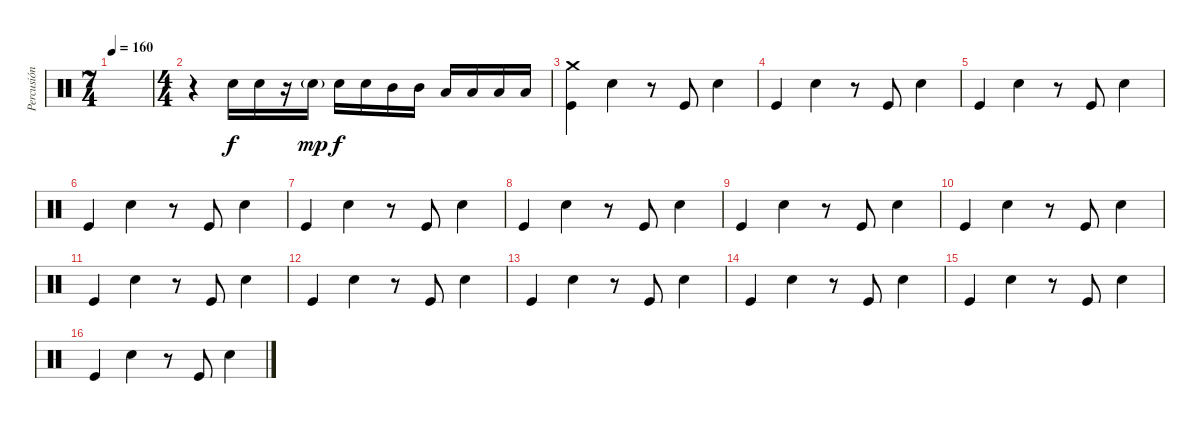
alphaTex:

\track ("Percusión" "Percusión") {instrument percussion}
\staff {score}
\articulation defaults
\ts (7 4)
\tempo 160
\clef neutral
\ks c
|
\ts (4 4)
r.4 "Snare (hit) 2".16 "Snare (hit) 2".16 r.16 "Snare (hit) 2"{g}.16{dy mp} "Snare (hit) 2".16{dy f} "Snare (hit) 2".16 "Mid Tom (hit)".16 "Mid Tom (hit)".16 "Low Tom (hit)".16 "Low Tom (hit)".16 "Low Floor Tom (hit)".16 "Low Floor Tom (hit)".16 |
("Kick (hit)" "Crash medium (hit)").4 "Snare (hit) 2".4 r.8 "Kick (hit)".8 "Snare (hit) 2".4 |
"Kick (hit)".4 "Snare (hit) 2".4 r.8 "Kick (hit)".8 "Snare (hit) 2".4 |
"Kick (hit)".4 "Snare (hit) 2".4 r.8 "Kick (hit)".8 "Snare (hit) 2".4 |
"Kick (hit)".4 "Snare (hit) 2".4 r.8 "Kick (hit)".8 "Snare (hit) 2".4 |
"Kick (hit)".4 "Snare (hit) 2".4 r.8 "Kick (hit)".8 "Snare (hit) 2".4 |
"Kick (hit)".4 "Snare (hit) 2".4 r.8 "Kick (hit)".8 "Snare (hit) 2".4 |
"Kick (hit)".4 "Snare (hit) 2".4 r.8 "Kick (hit)".8 "Snare (hit) 2".4 |
"Kick (hit)".4 "Snare (hit) 2".4 r.8 "Kick (hit)".8 "Snare (hit) 2".4 |
"Kick (hit)".4 "Snare (hit) 2".4 r.8 "Kick (hit)".8 "Snare (hit) 2".4 |
"Kick (hit)".4 "Snare (hit) 2".4 r.8 "Kick (hit)".8 "Snare (hit) 2".4 |
"Kick (hit)".4 "Snare (hit) 2".4 r.8 "Kick (hit)".8 "Snare (hit) 2".4 |
"Kick (hit)".4 "Snare (hit) 2".4 r.8 "Kick (hit)".8 "Snare (hit) 2".4 |
"Kick (hit)".4 "Snare (hit) 2".4 r.8 "Kick (hit)".8 "Snare (hit) 2".4 |
"Kick (hit)".4 "Snare (hit) 2".4 r.8 "Kick (hit)".8 "Snare (hit) 2".4
